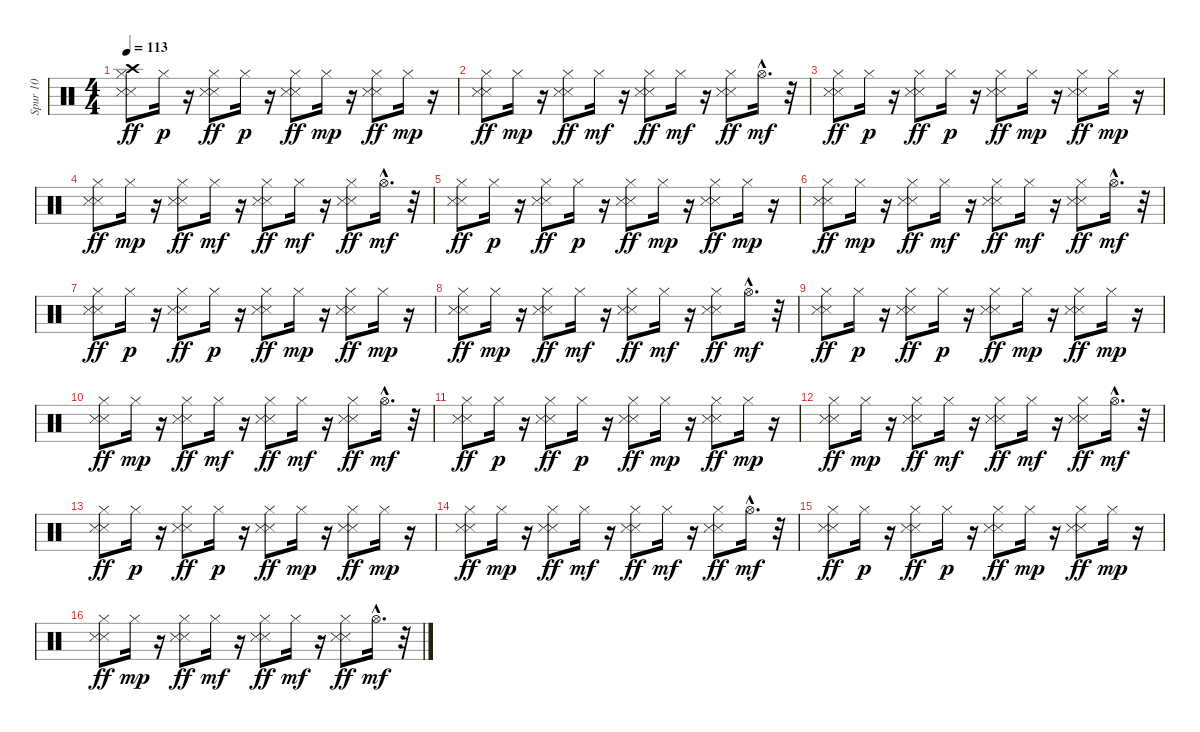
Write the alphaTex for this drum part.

\track ("Spur 10" "Spur 10") {instrument percussion}
\staff {score}
\articulation defaults
\ts (4 4)
\tempo 113
\clef neutral
\ks c
("Crash high (hit)" "Hi-Hat (closed)" "Snare (side stick) 3" "Snare (side stick) 3").8{dy ff} "Hi-Hat (closed)".16{dy p} r.16 ("Hi-Hat (closed)" "Snare (side stick) 3" "Snare (side stick) 3").8{dy ff} "Hi-Hat (closed)".16{dy p} r.16 ("Hi-Hat (closed)" "Snare (side stick) 3" "Snare (side stick) 3").8{dy ff} "Hi-Hat (closed)".16{dy mp} r.16 ("Hi-Hat (closed)" "Snare (side stick) 3" "Snare (side stick) 3").8{dy ff} "Hi-Hat (closed)".16{dy mp} r.16 |
("Hi-Hat (closed)" "Snare (side stick) 3" "Snare (side stick) 3").8{dy ff} "Hi-Hat (closed)".16{dy mp} r.16 ("Hi-Hat (closed)" "Snare (side stick) 3" "Snare (side stick) 3").8{dy ff} "Hi-Hat (closed)".16{dy mf} r.16 ("Hi-Hat (closed)" "Snare (side stick) 3" "Snare (side stick) 3").8{dy ff} "Hi-Hat (closed)".16{dy mf} r.16 ("Snare (side stick) 3" "Snare (side stick) 3" "Hi-Hat (closed)").8{dy ff} "Hi-Hat (open)"{hac}.16{d dy mf} r.32 |
("Hi-Hat (closed)" "Snare (side stick) 3" "Snare (side stick) 3").8{dy ff} "Hi-Hat (closed)".16{dy p} r.16 ("Hi-Hat (closed)" "Snare (side stick) 3" "Snare (side stick) 3").8{dy ff} "Hi-Hat (closed)".16{dy p} r.16 ("Hi-Hat (closed)" "Snare (side stick) 3" "Snare (side stick) 3").8{dy ff} "Hi-Hat (closed)".16{dy mp} r.16 ("Hi-Hat (closed)" "Snare (side stick) 3" "Snare (side stick) 3").8{dy ff} "Hi-Hat (closed)".16{dy mp} r.16 |
("Hi-Hat (closed)" "Snare (side stick) 3" "Snare (side stick) 3").8{dy ff} "Hi-Hat (closed)".16{dy mp} r.16 ("Hi-Hat (closed)" "Snare (side stick) 3" "Snare (side stick) 3").8{dy ff} "Hi-Hat (closed)".16{dy mf} r.16 ("Hi-Hat (closed)" "Snare (side stick) 3" "Snare (side stick) 3").8{dy ff} "Hi-Hat (closed)".16{dy mf} r.16 ("Snare (side stick) 3" "Snare (side stick) 3" "Hi-Hat (closed)").8{dy ff} "Hi-Hat (open)"{hac}.16{d dy mf} r.32 |
("Hi-Hat (closed)" "Snare (side stick) 3" "Snare (side stick) 3").8{dy ff} "Hi-Hat (closed)".16{dy p} r.16 ("Hi-Hat (closed)" "Snare (side stick) 3" "Snare (side stick) 3").8{dy ff} "Hi-Hat (closed)".16{dy p} r.16 ("Hi-Hat (closed)" "Snare (side stick) 3" "Snare (side stick) 3").8{dy ff} "Hi-Hat (closed)".16{dy mp} r.16 ("Hi-Hat (closed)" "Snare (side stick) 3" "Snare (side stick) 3").8{dy ff} "Hi-Hat (closed)".16{dy mp} r.16 |
("Hi-Hat (closed)" "Snare (side stick) 3" "Snare (side stick) 3").8{dy ff} "Hi-Hat (closed)".16{dy mp} r.16 ("Hi-Hat (closed)" "Snare (side stick) 3" "Snare (side stick) 3").8{dy ff} "Hi-Hat (closed)".16{dy mf} r.16 ("Hi-Hat (closed)" "Snare (side stick) 3" "Snare (side stick) 3").8{dy ff} "Hi-Hat (closed)".16{dy mf} r.16 ("Snare (side stick) 3" "Snare (side stick) 3" "Hi-Hat (closed)").8{dy ff} "Hi-Hat (open)"{hac}.16{d dy mf} r.32 |
("Hi-Hat (closed)" "Snare (side stick) 3" "Snare (side stick) 3").8{dy ff} "Hi-Hat (closed)".16{dy p} r.16 ("Hi-Hat (closed)" "Snare (side stick) 3" "Snare (side stick) 3").8{dy ff} "Hi-Hat (closed)".16{dy p} r.16 ("Hi-Hat (closed)" "Snare (side stick) 3" "Snare (side stick) 3").8{dy ff} "Hi-Hat (closed)".16{dy mp} r.16 ("Hi-Hat (closed)" "Snare (side stick) 3" "Snare (side stick) 3").8{dy ff} "Hi-Hat (closed)".16{dy mp} r.16 |
("Hi-Hat (closed)" "Snare (side stick) 3" "Snare (side stick) 3").8{dy ff} "Hi-Hat (closed)".16{dy mp} r.16 ("Hi-Hat (closed)" "Snare (side stick) 3" "Snare (side stick) 3").8{dy ff} "Hi-Hat (closed)".16{dy mf} r.16 ("Hi-Hat (closed)" "Snare (side stick) 3" "Snare (side stick) 3").8{dy ff} "Hi-Hat (closed)".16{dy mf} r.16 ("Snare (side stick) 3" "Snare (side stick) 3" "Hi-Hat (closed)").8{dy ff} "Hi-Hat (open)"{hac}.16{d dy mf} r.32 |
("Hi-Hat (closed)" "Snare (side stick) 3" "Snare (side stick) 3").8{dy ff} "Hi-Hat (closed)".16{dy p} r.16 ("Hi-Hat (closed)" "Snare (side stick) 3" "Snare (side stick) 3").8{dy ff} "Hi-Hat (closed)".16{dy p} r.16 ("Hi-Hat (closed)" "Snare (side stick) 3" "Snare (side stick) 3").8{dy ff} "Hi-Hat (closed)".16{dy mp} r.16 ("Hi-Hat (closed)" "Snare (side stick) 3" "Snare (side stick) 3").8{dy ff} "Hi-Hat (closed)".16{dy mp} r.16 |
("Hi-Hat (closed)" "Snare (side stick) 3" "Snare (side stick) 3").8{dy ff} "Hi-Hat (closed)".16{dy mp} r.16 ("Hi-Hat (closed)" "Snare (side stick) 3" "Snare (side stick) 3").8{dy ff} "Hi-Hat (closed)".16{dy mf} r.16 ("Hi-Hat (closed)" "Snare (side stick) 3" "Snare (side stick) 3").8{dy ff} "Hi-Hat (closed)".16{dy mf} r.16 ("Snare (side stick) 3" "Snare (side stick) 3" "Hi-Hat (closed)").8{dy ff} "Hi-Hat (open)"{hac}.16{d dy mf} r.32 |
("Hi-Hat (closed)" "Snare (side stick) 3" "Snare (side stick) 3").8{dy ff} "Hi-Hat (closed)".16{dy p} r.16 ("Hi-Hat (closed)" "Snare (side stick) 3" "Snare (side stick) 3").8{dy ff} "Hi-Hat (closed)".16{dy p} r.16 ("Hi-Hat (closed)" "Snare (side stick) 3" "Snare (side stick) 3").8{dy ff} "Hi-Hat (closed)".16{dy mp} r.16 ("Hi-Hat (closed)" "Snare (side stick) 3" "Snare (side stick) 3").8{dy ff} "Hi-Hat (closed)".16{dy mp} r.16 |
("Hi-Hat (closed)" "Snare (side stick) 3" "Snare (side stick) 3").8{dy ff} "Hi-Hat (closed)".16{dy mp} r.16 ("Hi-Hat (closed)" "Snare (side stick) 3" "Snare (side stick) 3").8{dy ff} "Hi-Hat (closed)".16{dy mf} r.16 ("Hi-Hat (closed)" "Snare (side stick) 3" "Snare (side stick) 3").8{dy ff} "Hi-Hat (closed)".16{dy mf} r.16 ("Snare (side stick) 3" "Snare (side stick) 3" "Hi-Hat (closed)").8{dy ff} "Hi-Hat (open)"{hac}.16{d dy mf} r.32 |
("Hi-Hat (closed)" "Snare (side stick) 3" "Snare (side stick) 3").8{dy ff} "Hi-Hat (closed)".16{dy p} r.16 ("Hi-Hat (closed)" "Snare (side stick) 3" "Snare (side stick) 3").8{dy ff} "Hi-Hat (closed)".16{dy p} r.16 ("Hi-Hat (closed)" "Snare (side stick) 3" "Snare (side stick) 3").8{dy ff} "Hi-Hat (closed)".16{dy mp} r.16 ("Hi-Hat (closed)" "Snare (side stick) 3" "Snare (side stick) 3").8{dy ff} "Hi-Hat (closed)".16{dy mp} r.16 |
("Hi-Hat (closed)" "Snare (side stick) 3" "Snare (side stick) 3").8{dy ff} "Hi-Hat (closed)".16{dy mp} r.16 ("Hi-Hat (closed)" "Snare (side stick) 3" "Snare (side stick) 3").8{dy ff} "Hi-Hat (closed)".16{dy mf} r.16 ("Hi-Hat (closed)" "Snare (side stick) 3" "Snare (side stick) 3").8{dy ff} "Hi-Hat (closed)".16{dy mf} r.16 ("Snare (side stick) 3" "Snare (side stick) 3" "Hi-Hat (closed)").8{dy ff} "Hi-Hat (open)"{hac}.16{d dy mf} r.32 |
("Hi-Hat (closed)" "Snare (side stick) 3" "Snare (side stick) 3").8{dy ff} "Hi-Hat (closed)".16{dy p} r.16 ("Hi-Hat (closed)" "Snare (side stick) 3" "Snare (side stick) 3").8{dy ff} "Hi-Hat (closed)".16{dy p} r.16 ("Hi-Hat (closed)" "Snare (side stick) 3" "Snare (side stick) 3").8{dy ff} "Hi-Hat (closed)".16{dy mp} r.16 ("Hi-Hat (closed)" "Snare (side stick) 3" "Snare (side stick) 3").8{dy ff} "Hi-Hat (closed)".16{dy mp} r.16 |
("Hi-Hat (closed)" "Snare (side stick) 3" "Snare (side stick) 3").8{dy ff} "Hi-Hat (closed)".16{dy mp} r.16 ("Hi-Hat (closed)" "Snare (side stick) 3" "Snare (side stick) 3").8{dy ff} "Hi-Hat (closed)".16{dy mf} r.16 ("Hi-Hat (closed)" "Snare (side stick) 3" "Snare (side stick) 3").8{dy ff} "Hi-Hat (closed)".16{dy mf} r.16 ("Snare (side stick) 3" "Snare (side stick) 3" "Hi-Hat (closed)").8{dy ff} "Hi-Hat (open)"{hac}.16{d dy mf} r.32
